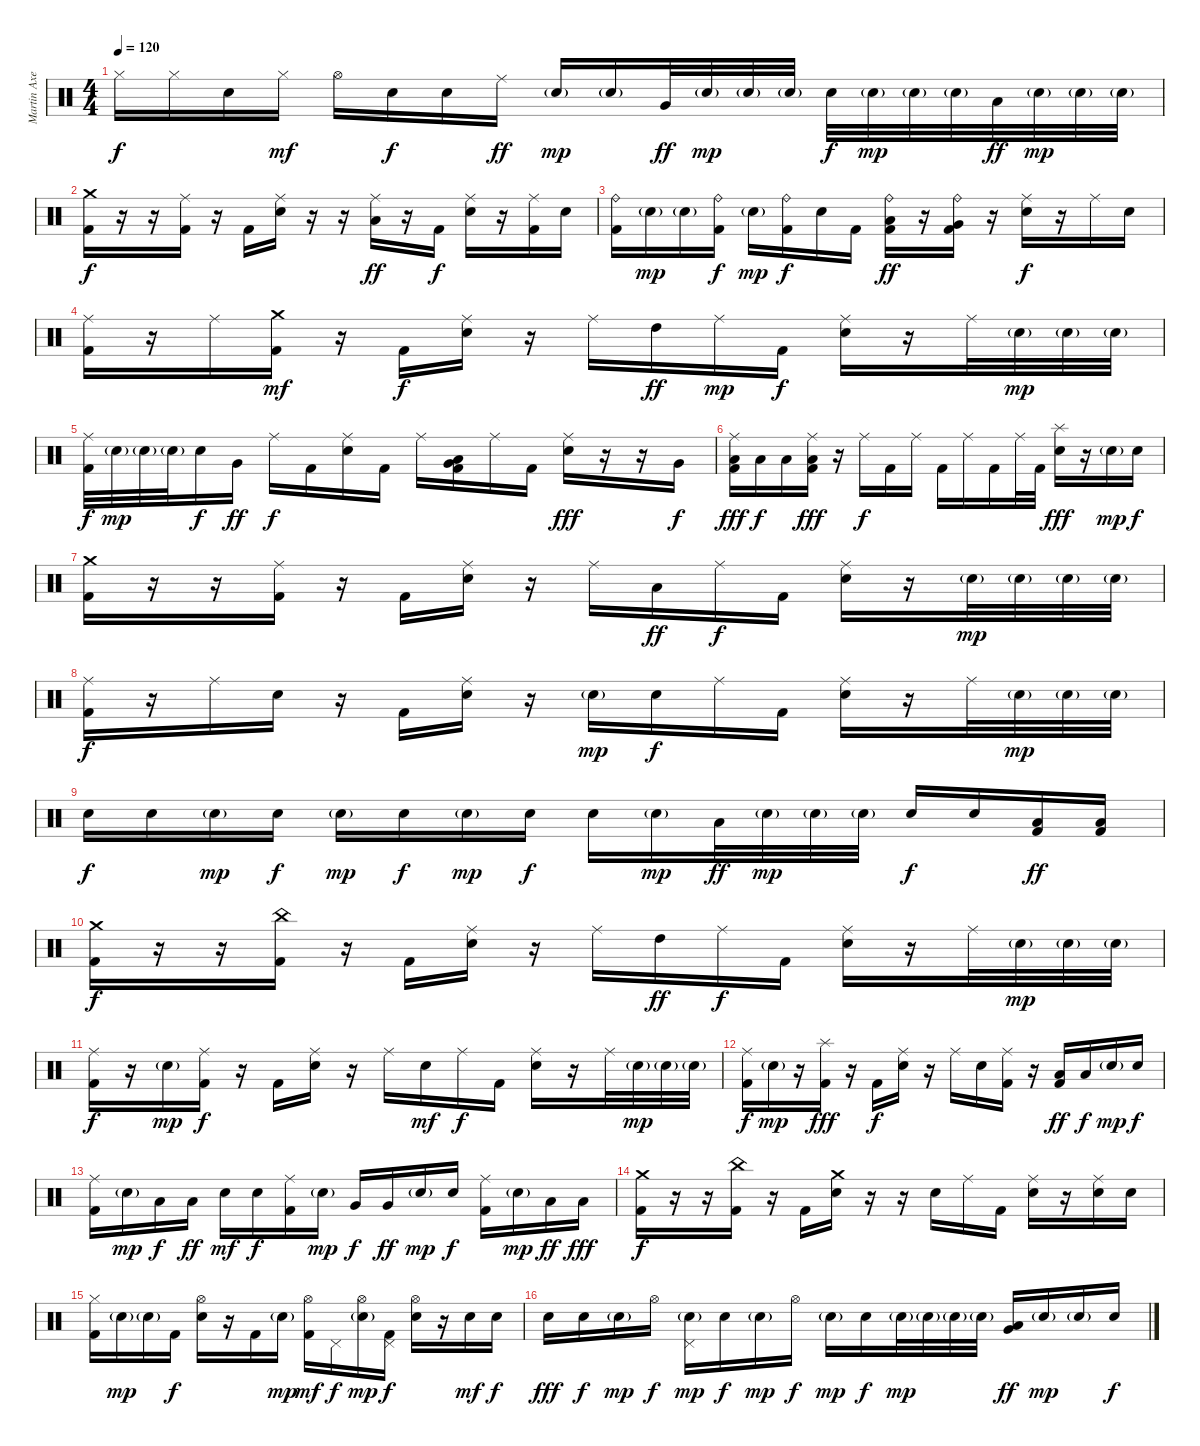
\track ("Martin Axenrot - Drums" "Martin Axe") {instrument percussion}
\staff {score}
\articulation defaults
\ts (4 4)
\tempo 120
\clef neutral
\ks c "Hi-Hat (closed)".16{dy f} "Hi-Hat (closed)".16 "Snare (hit) 2".16 "Hi-Hat (closed)".16{dy mf} "Hi-Hat (open)".16 "Snare (hit) 2".16{dy f} "Snare (hit) 2".16 "Ride (middle)".16{dy ff} "Snare (hit) 2"{g}.16{dy mp} "Snare (hit) 2"{g}.16 "Very Low Tom (hit)".32{dy ff} "Snare (hit) 2"{g}.32{dy mp} "Snare (hit) 2"{g}.32 "Snare (hit) 2"{g}.32 "Snare (hit) 2".32{dy f} "Snare (hit) 2"{g}.32{dy mp} "Snare (hit) 2"{g}.32 "Snare (hit) 2"{g}.32 "Low Floor Tom (hit)".32{dy ff} "Snare (hit) 2"{g}.32{dy mp} "Snare (hit) 2"{g}.32 "Snare (hit) 2"{g}.32
|
("Crash medium (hit)" "Kick (hit) 2").16{dy f} r.16 r.16 ("Ride (middle)" "Kick (hit) 2").16 r.16 "Kick (hit) 2".16 ("Ride (middle)" "Snare (hit) 2").16 r.16 r.16 ("Ride (middle)" "Low Tom (hit)").16{dy ff} r.16 "Kick (hit) 2".16{dy f} ("Ride (middle)" "Snare (hit) 2").16 r.16 ("Ride (middle)" "Kick (hit) 2").16 "Snare (hit) 2".16 |
("Ride (bell)" "Kick (hit) 2").16 "Snare (hit) 2"{g}.16{dy mp} "Snare (hit) 2"{g}.16 ("Ride (bell)" "Kick (hit) 2").16{dy f} "Snare (hit) 2"{g}.16{dy mp} ("Ride (bell)" "Kick (hit) 2").16{dy f} "Snare (hit) 2".16 "Kick (hit) 2".16 ("Ride (bell)" "Low Tom (hit)" "Kick (hit) 2").16{dy ff} r.16 ("Ride (bell)" "Very Low Tom (hit)" "Kick (hit) 2").16 r.16 ("Ride (middle)" "Snare (hit) 2").16{dy f} r.16 "Ride (middle)".16 "Snare (hit) 2".16 |
("Ride (middle)" "Kick (hit) 2").16 r.16 "Ride (middle)".16 ("Crash medium (hit)" "Kick (hit) 2").16{dy mf} r.16 "Kick (hit) 2".16{dy f} ("Ride (middle)" "Snare (hit) 2").16 r.16 "Ride (middle)".16 "High Tom (hit)".16{dy ff} "Ride (middle)".16{dy mp} "Kick (hit) 2".16{dy f} ("Ride (middle)" "Snare (hit) 2").16 r.16 "Ride (middle)".32 "Snare (hit) 2"{g}.32{dy mp} "Snare (hit) 2"{g}.32 "Snare (hit) 2"{g}.32 |
("Ride (middle)" "Kick (hit) 2").32{dy f} "Snare (hit) 2"{g}.32{dy mp} "Snare (hit) 2"{g}.32 "Snare (hit) 2"{g}.32 "Snare (hit) 2".16{dy f} "Very Low Tom (hit)".16{dy ff} "Ride (middle)".16{dy f} "Kick (hit) 2".16 ("Ride (middle)" "Snare (hit) 2").16 "Kick (hit) 2".16 "Ride (middle)".16 ("Low Tom (hit)" "Very Low Tom (hit)" "Kick (hit) 2").16 "Ride (middle)".16 "Kick (hit) 2".16 ("Ride (middle)" "Snare (hit) 2").16{dy fff} r.16 r.16 "Very Low Tom (hit)".16{dy f} |
("Ride (middle)" "Low Floor Tom (hit)" "Kick (hit) 2").16{dy fff} "Low Floor Tom (hit)".16{dy f} "Low Floor Tom (hit)".16 ("Ride (middle)" "Low Floor Tom (hit)" "Kick (hit) 2").16{dy fff} r.16 "Ride (middle)".16{dy f} "Kick (hit) 2".16 "Ride (middle)".16 "Kick (hit) 2".16 "Ride (middle)".16 "Kick (hit) 2".16 "Ride (middle)".32 "Kick (hit) 2".32 ("Splash (hit)" "Snare (hit) 2").16{dy fff} r.16 "Snare (hit) 2"{g}.16{dy mp} "Snare (hit) 2".16{dy f} |
("Crash medium (hit)" "Kick (hit) 2").16 r.16 r.16 ("Ride (middle)" "Kick (hit) 2").16 r.16 "Kick (hit) 2".16 ("Ride (middle)" "Snare (hit) 2").16 r.16 "Ride (middle)".16 "Low Tom (hit)".16{dy ff} "Ride (middle)".16{dy f} "Kick (hit) 2".16 ("Ride (middle)" "Snare (hit) 2").16 r.16 "Snare (hit) 2"{g}.32{dy mp} "Snare (hit) 2"{g}.32 "Snare (hit) 2"{g}.32 "Snare (hit) 2"{g}.32 |
("Ride (middle)" "Kick (hit) 2").16{dy f} r.16 "Ride (middle)".16 "Snare (hit) 2".16 r.16 "Kick (hit) 2".16 ("Ride (middle)" "Snare (hit) 2").16 r.16 "Snare (hit) 2"{g}.16{dy mp} "Snare (hit) 2".16{dy f} "Ride (middle)".16 "Kick (hit) 2".16 ("Ride (middle)" "Snare (hit) 2").16 r.16 "Ride (middle)".32 "Snare (hit) 2"{g}.32{dy mp} "Snare (hit) 2"{g}.32 "Snare (hit) 2"{g}.32 |
"Snare (hit) 2".16{dy f} "Snare (hit) 2".16 "Snare (hit) 2"{g}.16{dy mp} "Snare (hit) 2".16{dy f} "Snare (hit) 2"{g}.16{dy mp} "Snare (hit) 2".16{dy f} "Snare (hit) 2"{g}.16{dy mp} "Snare (hit) 2".16{dy f} "Snare (hit) 2".16 "Snare (hit) 2"{g}.16{dy mp} "Low Tom (hit)".32{dy ff} "Snare (hit) 2"{g}.32{dy mp} "Snare (hit) 2"{g}.32 "Snare (hit) 2"{g}.32 "Snare (hit) 2".16{dy f} "Snare (hit) 2".16 ("Low Tom (hit)" "Kick (hit) 2").16{dy ff} ("Low Tom (hit)" "Kick (hit) 2").16 |
("Crash medium (hit)" "Kick (hit) 2").16{dy f} r.16 r.16 ("China (hit)" "Kick (hit) 2").16 r.16 "Kick (hit) 2".16 ("Ride (middle)" "Snare (hit) 2").16 r.16 "Ride (middle)".16 "High Tom (hit)".16{dy ff} "Ride (middle)".16{dy f} "Kick (hit) 2".16 ("Ride (middle)" "Snare (hit) 2").16 r.16 "Ride (middle)".32 "Snare (hit) 2"{g}.32{dy mp} "Snare (hit) 2"{g}.32 "Snare (hit) 2"{g}.32 |
("Ride (middle)" "Kick (hit) 2").16{dy f} r.16 "Snare (hit) 2"{g}.16{dy mp} ("Ride (middle)" "Kick (hit) 2").16{dy f} r.16 "Kick (hit) 2".16 ("Ride (middle)" "Snare (hit) 2").16 r.16 "Ride (middle)".16 "Snare (hit) 2".16{dy mf} "Ride (middle)".16{dy f} "Kick (hit) 2".16 ("Ride (middle)" "Snare (hit) 2").16 r.16 "Ride (middle)".32 "Snare (hit) 2"{g}.32{dy mp} "Snare (hit) 2"{g}.32 "Snare (hit) 2"{g}.32 |
("Ride (middle)" "Kick (hit) 2").16{dy f} "Snare (hit) 2"{g}.16{dy mp} r.16 ("Splash (hit)" "Kick (hit) 2").16{dy fff} r.16 "Kick (hit) 2".16{dy f} ("Ride (middle)" "Snare (hit) 2").16 r.16 "Ride (middle)".16 "Snare (hit) 2".16 ("Ride (middle)" "Kick (hit) 2").16 r.16 ("Low Tom (hit)" "Kick (hit) 2").16{dy ff} "Low Tom (hit)".16{dy f} "Snare (hit) 2"{g}.16{dy mp} "Snare (hit) 2".16{dy f} |
("Ride (middle)" "Kick (hit) 2").16 "Snare (hit) 2"{g}.16{dy mp} "Low Tom (hit)".16{dy f} "Low Tom (hit)".16{dy ff} "Snare (hit) 2".16{dy mf} "Snare (hit) 2".16{dy f} ("Ride (middle)" "Kick (hit) 2").16 "Snare (hit) 2"{g}.16{dy mp} "Very Low Tom (hit)".16{dy f} "Very Low Tom (hit)".16{dy ff} "Snare (hit) 2"{g}.16{dy mp} "Snare (hit) 2".16{dy f} ("Ride (middle)" "Kick (hit) 2").16 "Snare (hit) 2"{g}.16{dy mp} "Low Floor Tom (hit)".16{dy ff} "Low Floor Tom (hit)".16{dy fff} |
("Crash medium (hit)" "Kick (hit) 2").16{dy f} r.16 r.16 ("China (hit)" "Kick (hit) 2").16 r.16 "Kick (hit) 2".16 ("Crash medium (hit)" "Snare (hit) 2").16 r.16 r.16 "Snare (hit) 2".16 "Ride (middle)".16 "Kick (hit) 2".16 ("Ride (middle)" "Snare (hit) 2").16 r.16 ("Ride (middle)" "Snare (hit) 2").16 "Snare (hit) 2".16 |
("Hi-Hat (closed)" "Kick (hit) 2").16 "Snare (hit) 2"{g}.16{dy mp} "Snare (hit) 2"{g}.16 "Kick (hit) 2".16{dy f} ("Hi-Hat (open)" "Snare (hit) 2").16 r.16 "Kick (hit) 2".16 "Snare (hit) 2"{g}.16{dy mp} ("Hi-Hat (open)" "Kick (hit) 2").16{dy mf} "Pedal Hi-Hat (hit)".16{dy f} ("Hi-Hat (open)" "Snare (hit) 2"{g}).16{dy mp} ("Pedal Hi-Hat (hit)" "Kick (hit) 2").16{dy f} ("Hi-Hat (open)" "Snare (hit) 2").16 r.16 "Snare (hit) 2".16{dy mf} "Snare (hit) 2".16{dy f} |
"Snare (hit) 2".16{dy fff} "Snare (hit) 2".16{dy f} "Snare (hit) 2"{g}.16{dy mp} "Hi-Hat (open)".16{dy f} ("Snare (hit) 2"{g} "Pedal Hi-Hat (hit)").16{dy mp} "Snare (hit) 2".16{dy f} "Snare (hit) 2"{g}.16{dy mp} "Hi-Hat (open)".16{dy f} "Snare (hit) 2"{g}.16{dy mp} "Snare (hit) 2".16{dy f} "Snare (hit) 2"{g}.32{dy mp} "Snare (hit) 2"{g}.32 "Snare (hit) 2"{g}.32 "Snare (hit) 2"{g}.32 ("Low Tom (hit)" "Very Low Tom (hit)").16{dy ff} "Snare (hit) 2"{g}.16{dy mp} "Snare (hit) 2"{g}.16 "Snare (hit) 2".16{dy f}
